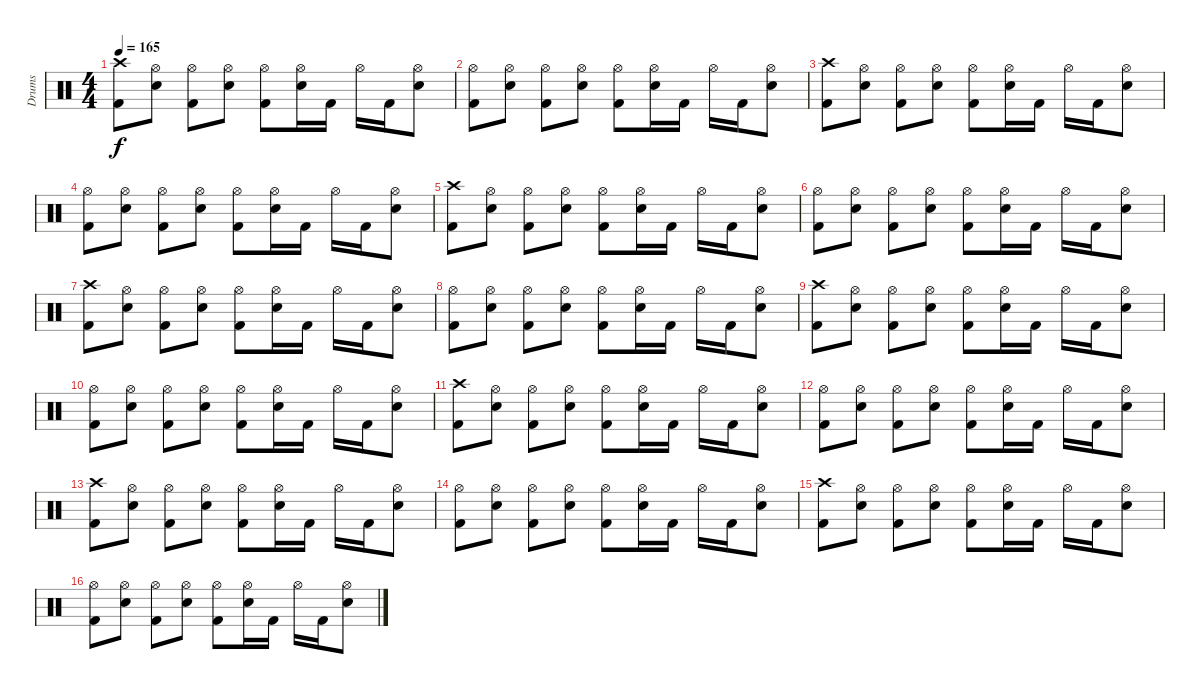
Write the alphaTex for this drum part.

\track ("Drums" "Drums") {instrument percussion}
\staff {score}
\articulation defaults
\ts (4 4)
\tempo 165
\clef neutral
\ks c
("Kick (hit) 2" "Crash high (hit)").8{dy f} ("Hi-Hat (open)" "Electric Snare (hit)").8 ("Hi-Hat (open)" "Kick (hit) 2").8 ("Hi-Hat (open)" "Electric Snare (hit)").8 ("Hi-Hat (open)" "Kick (hit) 2").8 ("Hi-Hat (open)" "Electric Snare (hit)").16 "Kick (hit) 2".16 "Hi-Hat (open)".16 "Kick (hit) 2".16 ("Hi-Hat (open)" "Electric Snare (hit)").8 |
("Hi-Hat (open)" "Kick (hit) 2").8 ("Hi-Hat (open)" "Electric Snare (hit)").8 ("Hi-Hat (open)" "Kick (hit) 2").8 ("Hi-Hat (open)" "Electric Snare (hit)").8 ("Hi-Hat (open)" "Kick (hit) 2").8 ("Hi-Hat (open)" "Electric Snare (hit)").16 "Kick (hit) 2".16 "Hi-Hat (open)".16 "Kick (hit) 2".16 ("Hi-Hat (open)" "Electric Snare (hit)").8 |
("Crash high (hit)" "Kick (hit) 2").8 ("Hi-Hat (open)" "Electric Snare (hit)").8 ("Hi-Hat (open)" "Kick (hit) 2").8 ("Hi-Hat (open)" "Electric Snare (hit)").8 ("Hi-Hat (open)" "Kick (hit) 2").8 ("Hi-Hat (open)" "Electric Snare (hit)").16 "Kick (hit) 2".16 "Hi-Hat (open)".16 "Kick (hit) 2".16 ("Hi-Hat (open)" "Electric Snare (hit)").8 |
("Hi-Hat (open)" "Kick (hit) 2").8 ("Hi-Hat (open)" "Electric Snare (hit)").8 ("Hi-Hat (open)" "Kick (hit) 2").8 ("Hi-Hat (open)" "Electric Snare (hit)").8 ("Hi-Hat (open)" "Kick (hit) 2").8 ("Hi-Hat (open)" "Electric Snare (hit)").16 "Kick (hit) 2".16 "Hi-Hat (open)".16 "Kick (hit) 2".16 ("Hi-Hat (open)" "Electric Snare (hit)").8 |
("Crash high (hit)" "Kick (hit) 2").8 ("Hi-Hat (open)" "Electric Snare (hit)").8 ("Hi-Hat (open)" "Kick (hit) 2").8 ("Hi-Hat (open)" "Electric Snare (hit)").8 ("Hi-Hat (open)" "Kick (hit) 2").8 ("Hi-Hat (open)" "Electric Snare (hit)").16 "Kick (hit) 2".16 "Hi-Hat (open)".16 "Kick (hit) 2".16 ("Hi-Hat (open)" "Electric Snare (hit)").8 |
("Hi-Hat (open)" "Kick (hit) 2").8 ("Hi-Hat (open)" "Electric Snare (hit)").8 ("Hi-Hat (open)" "Kick (hit) 2").8 ("Hi-Hat (open)" "Electric Snare (hit)").8 ("Hi-Hat (open)" "Kick (hit) 2").8 ("Hi-Hat (open)" "Electric Snare (hit)").16 "Kick (hit) 2".16 "Hi-Hat (open)".16 "Kick (hit) 2".16 ("Hi-Hat (open)" "Electric Snare (hit)").8 |
("Crash high (hit)" "Kick (hit) 2").8 ("Hi-Hat (open)" "Electric Snare (hit)").8 ("Hi-Hat (open)" "Kick (hit) 2").8 ("Hi-Hat (open)" "Electric Snare (hit)").8 ("Hi-Hat (open)" "Kick (hit) 2").8 ("Hi-Hat (open)" "Electric Snare (hit)").16 "Kick (hit) 2".16 "Hi-Hat (open)".16 "Kick (hit) 2".16 ("Hi-Hat (open)" "Electric Snare (hit)").8 |
("Hi-Hat (open)" "Kick (hit) 2").8 ("Hi-Hat (open)" "Electric Snare (hit)").8 ("Hi-Hat (open)" "Kick (hit) 2").8 ("Hi-Hat (open)" "Electric Snare (hit)").8 ("Hi-Hat (open)" "Kick (hit) 2").8 ("Hi-Hat (open)" "Electric Snare (hit)").16 "Kick (hit) 2".16 "Hi-Hat (open)".16 "Kick (hit) 2".16 ("Hi-Hat (open)" "Electric Snare (hit)").8 |
("Crash high (hit)" "Kick (hit) 2").8 ("Hi-Hat (open)" "Electric Snare (hit)").8 ("Hi-Hat (open)" "Kick (hit) 2").8 ("Hi-Hat (open)" "Electric Snare (hit)").8 ("Hi-Hat (open)" "Kick (hit) 2").8 ("Hi-Hat (open)" "Electric Snare (hit)").16 "Kick (hit) 2".16 "Hi-Hat (open)".16 "Kick (hit) 2".16 ("Hi-Hat (open)" "Electric Snare (hit)").8 |
("Hi-Hat (open)" "Kick (hit) 2").8 ("Hi-Hat (open)" "Electric Snare (hit)").8 ("Hi-Hat (open)" "Kick (hit) 2").8 ("Hi-Hat (open)" "Electric Snare (hit)").8 ("Hi-Hat (open)" "Kick (hit) 2").8 ("Hi-Hat (open)" "Electric Snare (hit)").16 "Kick (hit) 2".16 "Hi-Hat (open)".16 "Kick (hit) 2".16 ("Hi-Hat (open)" "Electric Snare (hit)").8 |
("Crash high (hit)" "Kick (hit) 2").8 ("Hi-Hat (open)" "Electric Snare (hit)").8 ("Hi-Hat (open)" "Kick (hit) 2").8 ("Hi-Hat (open)" "Electric Snare (hit)").8 ("Hi-Hat (open)" "Kick (hit) 2").8 ("Hi-Hat (open)" "Electric Snare (hit)").16 "Kick (hit) 2".16 "Hi-Hat (open)".16 "Kick (hit) 2".16 ("Hi-Hat (open)" "Electric Snare (hit)").8 |
("Hi-Hat (open)" "Kick (hit) 2").8 ("Hi-Hat (open)" "Electric Snare (hit)").8 ("Hi-Hat (open)" "Kick (hit) 2").8 ("Hi-Hat (open)" "Electric Snare (hit)").8 ("Hi-Hat (open)" "Kick (hit) 2").8 ("Hi-Hat (open)" "Electric Snare (hit)").16 "Kick (hit) 2".16 "Hi-Hat (open)".16 "Kick (hit) 2".16 ("Hi-Hat (open)" "Electric Snare (hit)").8 |
("Crash high (hit)" "Kick (hit) 2").8 ("Hi-Hat (open)" "Electric Snare (hit)").8 ("Hi-Hat (open)" "Kick (hit) 2").8 ("Hi-Hat (open)" "Electric Snare (hit)").8 ("Hi-Hat (open)" "Kick (hit) 2").8 ("Hi-Hat (open)" "Electric Snare (hit)").16 "Kick (hit) 2".16 "Hi-Hat (open)".16 "Kick (hit) 2".16 ("Hi-Hat (open)" "Electric Snare (hit)").8 |
("Hi-Hat (open)" "Kick (hit) 2").8 ("Hi-Hat (open)" "Electric Snare (hit)").8 ("Hi-Hat (open)" "Kick (hit) 2").8 ("Hi-Hat (open)" "Electric Snare (hit)").8 ("Hi-Hat (open)" "Kick (hit) 2").8 ("Hi-Hat (open)" "Electric Snare (hit)").16 "Kick (hit) 2".16 "Hi-Hat (open)".16 "Kick (hit) 2".16 ("Hi-Hat (open)" "Electric Snare (hit)").8 |
("Crash high (hit)" "Kick (hit) 2").8 ("Hi-Hat (open)" "Electric Snare (hit)").8 ("Hi-Hat (open)" "Kick (hit) 2").8 ("Hi-Hat (open)" "Electric Snare (hit)").8 ("Hi-Hat (open)" "Kick (hit) 2").8 ("Hi-Hat (open)" "Electric Snare (hit)").16 "Kick (hit) 2".16 "Hi-Hat (open)".16 "Kick (hit) 2".16 ("Hi-Hat (open)" "Electric Snare (hit)").8 |
("Hi-Hat (open)" "Kick (hit) 2").8 ("Hi-Hat (open)" "Electric Snare (hit)").8 ("Hi-Hat (open)" "Kick (hit) 2").8 ("Hi-Hat (open)" "Electric Snare (hit)").8 ("Hi-Hat (open)" "Kick (hit) 2").8 ("Hi-Hat (open)" "Electric Snare (hit)").16 "Kick (hit) 2".16 "Hi-Hat (open)".16 "Kick (hit) 2".16 ("Hi-Hat (open)" "Electric Snare (hit)").8
